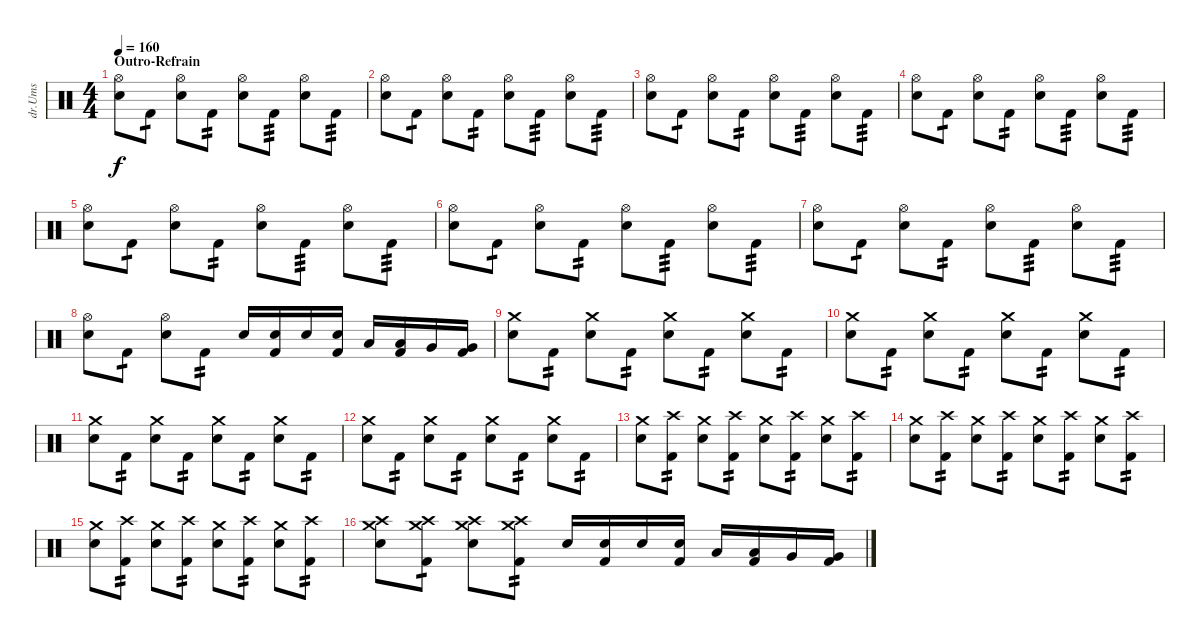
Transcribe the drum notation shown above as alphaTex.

\track ("dr.Ums" "dr.Ums") {instrument percussion}
\staff {score}
\articulation defaults
\ts (4 4)
\section ("" "Outro-Refrain")
\tempo 160
\clef neutral
\ks c
("Snare (hit) 2" "Hi-Hat (open)").8{dy f} "Kick (hit) 2".8{tp 1} ("Snare (hit) 2" "Hi-Hat (open)").8 "Kick (hit) 2".8{tp 2} ("Snare (hit) 2" "Hi-Hat (open)").8 "Kick (hit) 2".8{tp 3} ("Snare (hit) 2" "Hi-Hat (open)").8 "Kick (hit) 2".8{tp 3} |
("Snare (hit) 2" "Hi-Hat (open)").8 "Kick (hit) 2".8{tp 1} ("Snare (hit) 2" "Hi-Hat (open)").8 "Kick (hit) 2".8{tp 2} ("Snare (hit) 2" "Hi-Hat (open)").8 "Kick (hit) 2".8{tp 3} ("Snare (hit) 2" "Hi-Hat (open)").8 "Kick (hit) 2".8{tp 3} |
("Snare (hit) 2" "Hi-Hat (open)").8 "Kick (hit) 2".8{tp 1} ("Snare (hit) 2" "Hi-Hat (open)").8 "Kick (hit) 2".8{tp 2} ("Snare (hit) 2" "Hi-Hat (open)").8 "Kick (hit) 2".8{tp 3} ("Snare (hit) 2" "Hi-Hat (open)").8 "Kick (hit) 2".8{tp 3} |
("Snare (hit) 2" "Hi-Hat (open)").8 "Kick (hit) 2".8{tp 1} ("Snare (hit) 2" "Hi-Hat (open)").8 "Kick (hit) 2".8{tp 2} ("Snare (hit) 2" "Hi-Hat (open)").8 "Kick (hit) 2".8{tp 3} ("Snare (hit) 2" "Hi-Hat (open)").8 "Kick (hit) 2".8{tp 3} |
("Snare (hit) 2" "Hi-Hat (open)").8 "Kick (hit) 2".8{tp 1} ("Snare (hit) 2" "Hi-Hat (open)").8 "Kick (hit) 2".8{tp 2} ("Snare (hit) 2" "Hi-Hat (open)").8 "Kick (hit) 2".8{tp 3} ("Snare (hit) 2" "Hi-Hat (open)").8 "Kick (hit) 2".8{tp 3} |
("Snare (hit) 2" "Hi-Hat (open)").8 "Kick (hit) 2".8{tp 1} ("Snare (hit) 2" "Hi-Hat (open)").8 "Kick (hit) 2".8{tp 2} ("Snare (hit) 2" "Hi-Hat (open)").8 "Kick (hit) 2".8{tp 3} ("Snare (hit) 2" "Hi-Hat (open)").8 "Kick (hit) 2".8{tp 3} |
("Snare (hit) 2" "Hi-Hat (open)").8 "Kick (hit) 2".8{tp 1} ("Snare (hit) 2" "Hi-Hat (open)").8 "Kick (hit) 2".8{tp 2} ("Snare (hit) 2" "Hi-Hat (open)").8 "Kick (hit) 2".8{tp 3} ("Snare (hit) 2" "Hi-Hat (open)").8 "Kick (hit) 2".8{tp 3} |
("Snare (hit) 2" "Hi-Hat (open)").8 "Kick (hit) 2".8{tp 1} ("Snare (hit) 2" "Hi-Hat (open)").8 "Kick (hit) 2".8{tp 2} "Snare (hit) 2".16 ("Snare (hit) 2" "Kick (hit) 2").16 "Snare (hit) 2".16 ("Snare (hit) 2" "Kick (hit) 2").16 "Low Tom (hit)".16 ("Low Tom (hit)" "Kick (hit) 2").16 "Very Low Tom (hit)".16 ("Very Low Tom (hit)" "Kick (hit) 2").16 |
("Snare (hit) 2" "Crash medium (hit)").8 "Kick (hit) 2".8{tp 2} ("Snare (hit) 2" "Crash medium (hit)").8 "Kick (hit) 2".8{tp 2} ("Snare (hit) 2" "Crash medium (hit)").8 "Kick (hit) 2".8{tp 2} ("Snare (hit) 2" "Crash medium (hit)").8 "Kick (hit) 2".8{tp 2} |
("Snare (hit) 2" "Crash medium (hit)").8 "Kick (hit) 2".8{tp 2} ("Snare (hit) 2" "Crash medium (hit)").8 "Kick (hit) 2".8{tp 2} ("Snare (hit) 2" "Crash medium (hit)").8 "Kick (hit) 2".8{tp 2} ("Snare (hit) 2" "Crash medium (hit)").8 "Kick (hit) 2".8{tp 2} |
("Snare (hit) 2" "Crash medium (hit)").8 "Kick (hit) 2".8{tp 2} ("Snare (hit) 2" "Crash medium (hit)").8 "Kick (hit) 2".8{tp 2} ("Snare (hit) 2" "Crash medium (hit)").8 "Kick (hit) 2".8{tp 2} ("Snare (hit) 2" "Crash medium (hit)").8 "Kick (hit) 2".8{tp 2} |
("Snare (hit) 2" "Crash medium (hit)").8 "Kick (hit) 2".8{tp 2} ("Snare (hit) 2" "Crash medium (hit)").8 "Kick (hit) 2".8{tp 2} ("Snare (hit) 2" "Crash medium (hit)").8 "Kick (hit) 2".8{tp 2} ("Snare (hit) 2" "Crash medium (hit)").8 "Kick (hit) 2".8{tp 2} |
("Snare (hit) 2" "Crash medium (hit)").8 ("Kick (hit) 2" "Crash high (hit)").8{tp 2} ("Snare (hit) 2" "Crash medium (hit)").8 ("Kick (hit) 2" "Crash high (hit)").8{tp 2} ("Snare (hit) 2" "Crash medium (hit)").8 ("Kick (hit) 2" "Crash high (hit)").8{tp 2} ("Snare (hit) 2" "Crash medium (hit)").8 ("Kick (hit) 2" "Crash high (hit)").8{tp 2} |
("Snare (hit) 2" "Crash medium (hit)").8 ("Kick (hit) 2" "Crash high (hit)").8{tp 2} ("Snare (hit) 2" "Crash medium (hit)").8 ("Kick (hit) 2" "Crash high (hit)").8{tp 2} ("Snare (hit) 2" "Crash medium (hit)").8 ("Kick (hit) 2" "Crash high (hit)").8{tp 2} ("Snare (hit) 2" "Crash medium (hit)").8 ("Kick (hit) 2" "Crash high (hit)").8{tp 2} |
("Snare (hit) 2" "Crash medium (hit)").8 ("Kick (hit) 2" "Crash high (hit)").8{tp 2} ("Snare (hit) 2" "Crash medium (hit)").8 ("Kick (hit) 2" "Crash high (hit)").8{tp 2} ("Snare (hit) 2" "Crash medium (hit)").8 ("Kick (hit) 2" "Crash high (hit)").8{tp 2} ("Snare (hit) 2" "Crash medium (hit)").8 ("Kick (hit) 2" "Crash high (hit)").8{tp 2} |
("Snare (hit) 2" "Crash medium (hit)" "Crash high (hit)").8 ("Kick (hit) 2" "Crash medium (hit)" "Crash high (hit)").8{tp 1} ("Snare (hit) 2" "Crash medium (hit)" "Crash high (hit)").8 ("Kick (hit) 2" "Crash medium (hit)" "Crash high (hit)").8{tp 2} "Snare (hit) 2".16 ("Snare (hit) 2" "Kick (hit) 2").16 "Snare (hit) 2".16 ("Snare (hit) 2" "Kick (hit) 2").16 "Low Tom (hit)".16 ("Low Tom (hit)" "Kick (hit) 2").16 "Very Low Tom (hit)".16 ("Very Low Tom (hit)" "Kick (hit) 2").16
